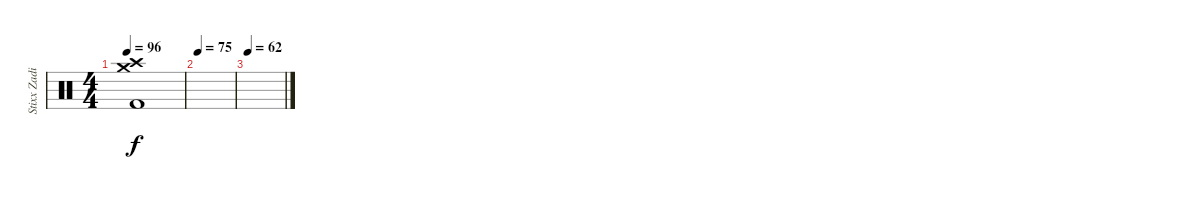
\track ("Stixx Zadinia (Drums)" "Stixx Zadi") {instrument percussion}
\staff {score}
\articulation defaults
\ts (4 4)
\tempo 96
\clef neutral
\ks c
("Crash high (hit)" "Crash medium (hit)" "Kick (hit) 2").1{dy f} |
\tempo 75
|
\tempo 62
